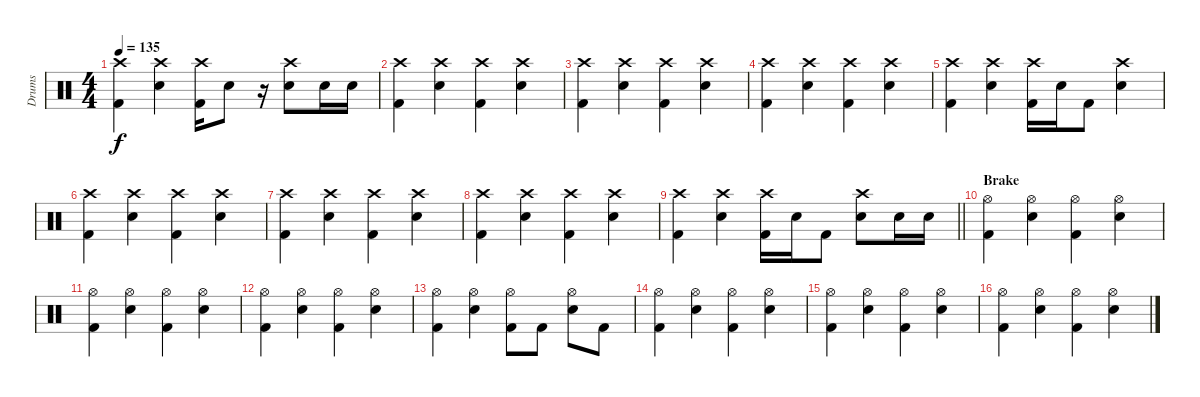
\track ("Drums" "Drums") {instrument percussion}
\staff {score}
\articulation defaults
\ts (4 4)
\tempo 135
\clef neutral
\ks c
("Crash high (hit)" "Kick (hit) 2").4{dy f} ("Crash high (hit)" "Electric Snare (hit)").4 ("Crash high (hit)" "Kick (hit) 2").16 "Electric Snare (hit)".8 r.16 ("Crash high (hit)" "Electric Snare (hit)").8 "Electric Snare (hit)".16 "Electric Snare (hit)".16 |
("Crash high (hit)" "Kick (hit) 2").4 ("Crash high (hit)" "Electric Snare (hit)").4 ("Crash high (hit)" "Kick (hit) 2").4 ("Crash high (hit)" "Electric Snare (hit)").4 |
("Crash high (hit)" "Kick (hit) 2").4 ("Crash high (hit)" "Electric Snare (hit)").4 ("Crash high (hit)" "Kick (hit) 2").4 ("Crash high (hit)" "Electric Snare (hit)").4 |
("Crash high (hit)" "Kick (hit) 2").4 ("Crash high (hit)" "Electric Snare (hit)").4 ("Crash high (hit)" "Kick (hit) 2").4 ("Crash high (hit)" "Electric Snare (hit)").4 |
("Crash high (hit)" "Kick (hit) 2").4 ("Crash high (hit)" "Electric Snare (hit)").4 ("Crash high (hit)" "Kick (hit) 2").16 "Electric Snare (hit)".16 "Kick (hit) 2".8 ("Crash high (hit)" "Electric Snare (hit)").4 |
("Crash high (hit)" "Kick (hit) 2").4 ("Crash high (hit)" "Electric Snare (hit)").4 ("Crash high (hit)" "Kick (hit) 2").4 ("Crash high (hit)" "Electric Snare (hit)").4 |
("Crash high (hit)" "Kick (hit) 2").4 ("Crash high (hit)" "Electric Snare (hit)").4 ("Crash high (hit)" "Kick (hit) 2").4 ("Crash high (hit)" "Electric Snare (hit)").4 |
("Crash high (hit)" "Kick (hit) 2").4 ("Crash high (hit)" "Electric Snare (hit)").4 ("Crash high (hit)" "Kick (hit) 2").4 ("Crash high (hit)" "Electric Snare (hit)").4 |
\barLineRight lightlight
("Crash high (hit)" "Kick (hit) 2").4 ("Crash high (hit)" "Electric Snare (hit)").4 ("Crash high (hit)" "Kick (hit) 2").16 "Electric Snare (hit)".16 "Kick (hit) 2".8 ("Crash high (hit)" "Electric Snare (hit)").8 "Electric Snare (hit)".16 "Electric Snare (hit)".16 |
\section ("" "Brake")
("Hi-Hat (open)" "Kick (hit) 2").4 ("Hi-Hat (open)" "Electric Snare (hit)").4 ("Hi-Hat (open)" "Kick (hit) 2").4 ("Hi-Hat (open)" "Electric Snare (hit)").4 |
("Hi-Hat (open)" "Kick (hit) 2").4 ("Hi-Hat (open)" "Electric Snare (hit)").4 ("Hi-Hat (open)" "Kick (hit) 2").4 ("Hi-Hat (open)" "Electric Snare (hit)").4 |
("Hi-Hat (open)" "Kick (hit) 2").4 ("Hi-Hat (open)" "Electric Snare (hit)").4 ("Hi-Hat (open)" "Kick (hit) 2").4 ("Hi-Hat (open)" "Electric Snare (hit)").4 |
("Hi-Hat (open)" "Kick (hit) 2").4 ("Hi-Hat (open)" "Electric Snare (hit)").4 ("Hi-Hat (open)" "Kick (hit) 2").8 "Kick (hit) 2".8 ("Hi-Hat (open)" "Electric Snare (hit)").8 "Kick (hit) 2".8 |
("Hi-Hat (open)" "Kick (hit) 2").4 ("Hi-Hat (open)" "Electric Snare (hit)").4 ("Hi-Hat (open)" "Kick (hit) 2").4 ("Hi-Hat (open)" "Electric Snare (hit)").4 |
("Hi-Hat (open)" "Kick (hit) 2").4 ("Hi-Hat (open)" "Electric Snare (hit)").4 ("Hi-Hat (open)" "Kick (hit) 2").4 ("Hi-Hat (open)" "Electric Snare (hit)").4 |
("Hi-Hat (open)" "Kick (hit) 2").4 ("Hi-Hat (open)" "Electric Snare (hit)").4 ("Hi-Hat (open)" "Kick (hit) 2").4 ("Hi-Hat (open)" "Electric Snare (hit)").4
